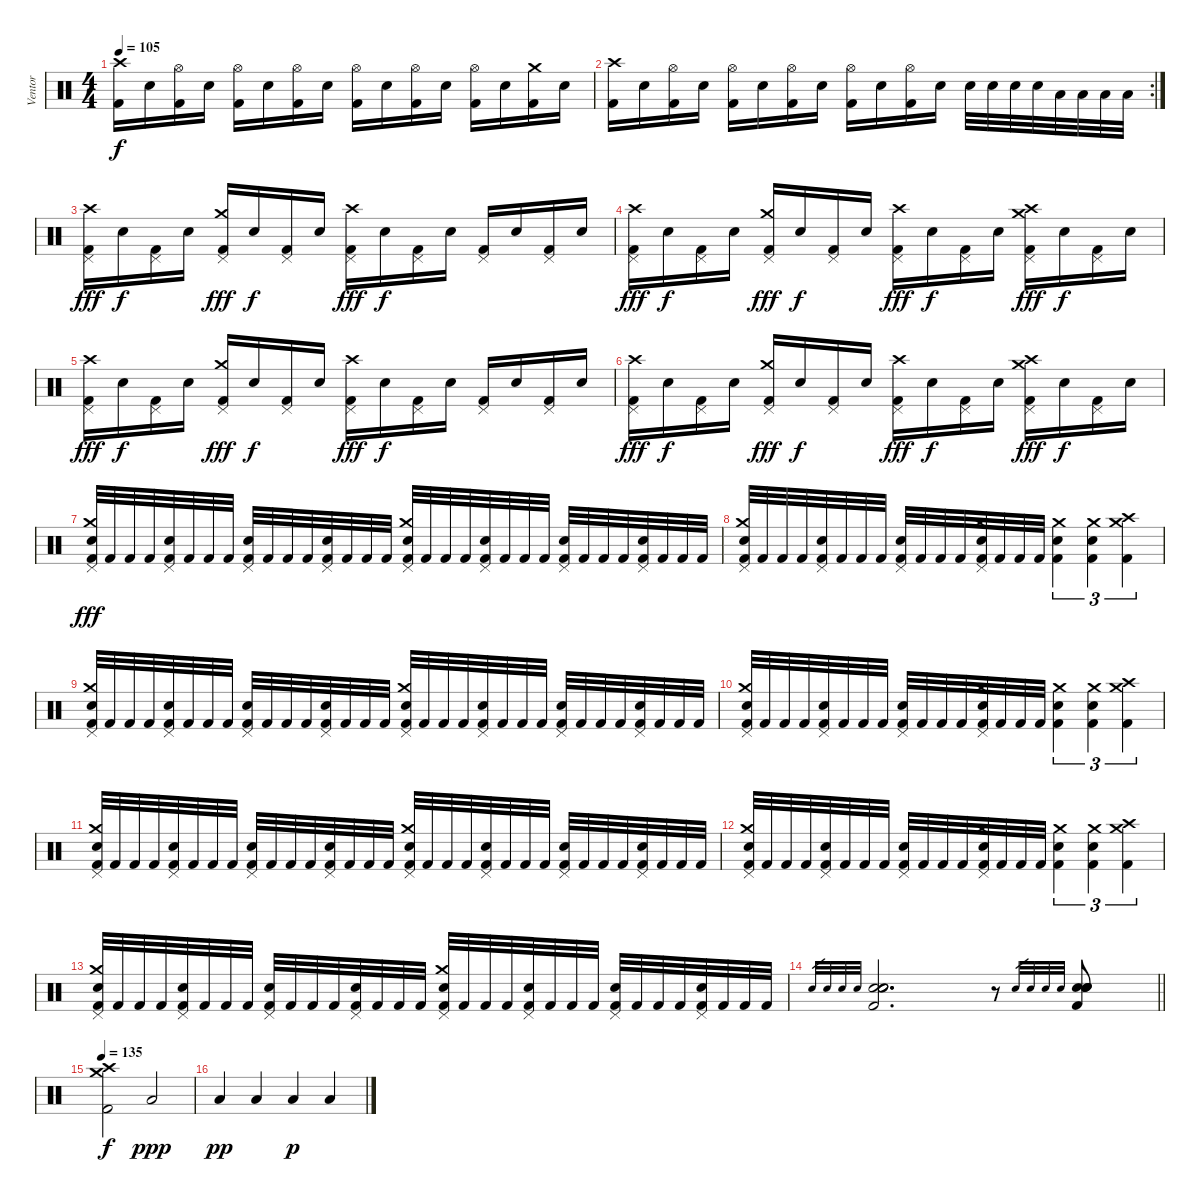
\track ("Ventor" "Ventor") {instrument percussion}
\staff {score}
\articulation defaults
\ts (4 4)
\tempo 105
\clef neutral
\ks c
("Crash high (hit)" "Kick (hit) 2").16{dy f} "Electric Snare (hit)".16 ("Hi-Hat (open)" "Kick (hit) 2").16 "Electric Snare (hit)".16 ("Hi-Hat (open)" "Kick (hit) 2").16 "Electric Snare (hit)".16 ("Hi-Hat (open)" "Kick (hit) 2").16 "Electric Snare (hit)".16 ("Hi-Hat (open)" "Kick (hit) 2").16 "Electric Snare (hit)".16 ("Hi-Hat (open)" "Kick (hit) 2").16 "Electric Snare (hit)".16 ("Hi-Hat (open)" "Kick (hit) 2").16 "Electric Snare (hit)".16 ("Crash medium (hit)" "Kick (hit) 2").16 "Electric Snare (hit)".16 |
\rc 2
("Crash high (hit)" "Kick (hit) 2").16 "Electric Snare (hit)".16 ("Hi-Hat (open)" "Kick (hit) 2").16 "Electric Snare (hit)".16 ("Hi-Hat (open)" "Kick (hit) 2").16 "Electric Snare (hit)".16 ("Hi-Hat (open)" "Kick (hit) 2").16 "Electric Snare (hit)".16 ("Hi-Hat (open)" "Kick (hit) 2").16 "Electric Snare (hit)".16 ("Hi-Hat (open)" "Kick (hit) 2").16 "Electric Snare (hit)".16 "Electric Snare (hit)".32 "Electric Snare (hit)".32 "Electric Snare (hit)".32 "Electric Snare (hit)".32 "Low Tom (hit)".32 "Low Tom (hit)".32 "Low Tom (hit)".32 "Low Tom (hit)".32 |
("Crash high (hit)" "Pedal Hi-Hat (hit)" "Kick (hit) 2").16{dy fff} "Electric Snare (hit)".16{dy f} ("Pedal Hi-Hat (hit)" "Kick (hit) 2").16 "Electric Snare (hit)".16 ("Crash medium (hit)" "Pedal Hi-Hat (hit)" "Kick (hit) 2").16{dy fff} "Electric Snare (hit)".16{dy f} ("Pedal Hi-Hat (hit)" "Kick (hit) 2").16 "Electric Snare (hit)".16 ("Crash high (hit)" "Pedal Hi-Hat (hit)" "Kick (hit) 2").16{dy fff} "Electric Snare (hit)".16{dy f} ("Pedal Hi-Hat (hit)" "Kick (hit) 2").16 "Electric Snare (hit)".16 ("Pedal Hi-Hat (hit)" "Kick (hit) 2").16 "Electric Snare (hit)".16 ("Pedal Hi-Hat (hit)" "Kick (hit) 2").16 "Electric Snare (hit)".16 |
("Crash high (hit)" "Pedal Hi-Hat (hit)" "Kick (hit) 2").16{dy fff} "Electric Snare (hit)".16{dy f} ("Pedal Hi-Hat (hit)" "Kick (hit) 2").16 "Electric Snare (hit)".16 ("Crash medium (hit)" "Pedal Hi-Hat (hit)" "Kick (hit) 2").16{dy fff} "Electric Snare (hit)".16{dy f} ("Pedal Hi-Hat (hit)" "Kick (hit) 2").16 "Electric Snare (hit)".16 ("Crash high (hit)" "Pedal Hi-Hat (hit)" "Kick (hit) 2").16{dy fff} "Electric Snare (hit)".16{dy f} ("Pedal Hi-Hat (hit)" "Kick (hit) 2").16 "Electric Snare (hit)".16 ("Crash medium (hit)" "Crash high (hit)" "Pedal Hi-Hat (hit)" "Kick (hit) 2").16{dy fff} "Electric Snare (hit)".16{dy f} ("Pedal Hi-Hat (hit)" "Kick (hit) 2").16 "Electric Snare (hit)".16 |
("Crash high (hit)" "Pedal Hi-Hat (hit)" "Kick (hit) 2").16{dy fff} "Electric Snare (hit)".16{dy f} ("Pedal Hi-Hat (hit)" "Kick (hit) 2").16 "Electric Snare (hit)".16 ("Crash medium (hit)" "Pedal Hi-Hat (hit)" "Kick (hit) 2").16{dy fff} "Electric Snare (hit)".16{dy f} ("Pedal Hi-Hat (hit)" "Kick (hit) 2").16 "Electric Snare (hit)".16 ("Crash high (hit)" "Pedal Hi-Hat (hit)" "Kick (hit) 2").16{dy fff} "Electric Snare (hit)".16{dy f} ("Pedal Hi-Hat (hit)" "Kick (hit) 2").16 "Electric Snare (hit)".16 ("Pedal Hi-Hat (hit)" "Kick (hit) 2").16 "Electric Snare (hit)".16 ("Pedal Hi-Hat (hit)" "Kick (hit) 2").16 "Electric Snare (hit)".16 |
("Crash high (hit)" "Pedal Hi-Hat (hit)" "Kick (hit) 2").16{dy fff} "Electric Snare (hit)".16{dy f} ("Pedal Hi-Hat (hit)" "Kick (hit) 2").16 "Electric Snare (hit)".16 ("Crash medium (hit)" "Pedal Hi-Hat (hit)" "Kick (hit) 2").16{dy fff} "Electric Snare (hit)".16{dy f} ("Pedal Hi-Hat (hit)" "Kick (hit) 2").16 "Electric Snare (hit)".16 ("Crash high (hit)" "Pedal Hi-Hat (hit)" "Kick (hit) 2").16{dy fff} "Electric Snare (hit)".16{dy f} ("Pedal Hi-Hat (hit)" "Kick (hit) 2").16 "Electric Snare (hit)".16 ("Crash medium (hit)" "Crash high (hit)" "Pedal Hi-Hat (hit)" "Kick (hit) 2").16{dy fff} "Electric Snare (hit)".16{dy f} ("Pedal Hi-Hat (hit)" "Kick (hit) 2").16 "Electric Snare (hit)".16 |
("Crash medium (hit)" "Pedal Hi-Hat (hit)" "Electric Snare (hit)" "Kick (hit) 2").32{dy fff} "Kick (hit) 2".32 "Kick (hit) 2".32 "Kick (hit) 2".32 ("Pedal Hi-Hat (hit)" "Electric Snare (hit)" "Kick (hit) 2").32 "Kick (hit) 2".32 "Kick (hit) 2".32 "Kick (hit) 2".32 ("Pedal Hi-Hat (hit)" "Electric Snare (hit)" "Kick (hit) 2").32 "Kick (hit) 2".32 "Kick (hit) 2".32 "Kick (hit) 2".32 ("Pedal Hi-Hat (hit)" "Electric Snare (hit)" "Kick (hit) 2").32 "Kick (hit) 2".32 "Kick (hit) 2".32 "Kick (hit) 2".32 ("Crash medium (hit)" "Pedal Hi-Hat (hit)" "Electric Snare (hit)" "Kick (hit) 2").32 "Kick (hit) 2".32 "Kick (hit) 2".32 "Kick (hit) 2".32 ("Pedal Hi-Hat (hit)" "Electric Snare (hit)" "Kick (hit) 2").32 "Kick (hit) 2".32 "Kick (hit) 2".32 "Kick (hit) 2".32 ("Pedal Hi-Hat (hit)" "Electric Snare (hit)" "Kick (hit) 2").32 "Kick (hit) 2".32 "Kick (hit) 2".32 "Kick (hit) 2".32 ("Pedal Hi-Hat (hit)" "Electric Snare (hit)" "Kick (hit) 2").32 "Kick (hit) 2".32 "Kick (hit) 2".32 "Kick (hit) 2".32 |
("Crash medium (hit)" "Pedal Hi-Hat (hit)" "Electric Snare (hit)" "Kick (hit) 2").32 "Kick (hit) 2".32 "Kick (hit) 2".32 "Kick (hit) 2".32 ("Pedal Hi-Hat (hit)" "Electric Snare (hit)" "Kick (hit) 2").32 "Kick (hit) 2".32 "Kick (hit) 2".32 "Kick (hit) 2".32 ("Pedal Hi-Hat (hit)" "Electric Snare (hit)" "Kick (hit) 2").32 "Kick (hit) 2".32 "Kick (hit) 2".32 "Kick (hit) 2".32 ("Crash medium (hit)" "Pedal Hi-Hat (hit)" "Electric Snare (hit)" "Kick (hit) 2").32 "Kick (hit) 2".32 "Kick (hit) 2".32 "Kick (hit) 2".32 ("Crash medium (hit)" "Electric Snare (hit)" "Kick (hit) 2").4{tu (3 2)} ("Crash medium (hit)" "Electric Snare (hit)" "Kick (hit) 2").4{tu (3 2)} ("Crash high (hit)" "Crash medium (hit)" "Kick (hit) 2").4{tu (3 2)} |
("Crash medium (hit)" "Pedal Hi-Hat (hit)" "Electric Snare (hit)" "Kick (hit) 2").32 "Kick (hit) 2".32 "Kick (hit) 2".32 "Kick (hit) 2".32 ("Pedal Hi-Hat (hit)" "Electric Snare (hit)" "Kick (hit) 2").32 "Kick (hit) 2".32 "Kick (hit) 2".32 "Kick (hit) 2".32 ("Pedal Hi-Hat (hit)" "Electric Snare (hit)" "Kick (hit) 2").32 "Kick (hit) 2".32 "Kick (hit) 2".32 "Kick (hit) 2".32 ("Pedal Hi-Hat (hit)" "Electric Snare (hit)" "Kick (hit) 2").32 "Kick (hit) 2".32 "Kick (hit) 2".32 "Kick (hit) 2".32 ("Crash medium (hit)" "Pedal Hi-Hat (hit)" "Electric Snare (hit)" "Kick (hit) 2").32 "Kick (hit) 2".32 "Kick (hit) 2".32 "Kick (hit) 2".32 ("Pedal Hi-Hat (hit)" "Electric Snare (hit)" "Kick (hit) 2").32 "Kick (hit) 2".32 "Kick (hit) 2".32 "Kick (hit) 2".32 ("Pedal Hi-Hat (hit)" "Electric Snare (hit)" "Kick (hit) 2").32 "Kick (hit) 2".32 "Kick (hit) 2".32 "Kick (hit) 2".32 ("Pedal Hi-Hat (hit)" "Electric Snare (hit)" "Kick (hit) 2").32 "Kick (hit) 2".32 "Kick (hit) 2".32 "Kick (hit) 2".32 |
("Crash medium (hit)" "Pedal Hi-Hat (hit)" "Electric Snare (hit)" "Kick (hit) 2").32 "Kick (hit) 2".32 "Kick (hit) 2".32 "Kick (hit) 2".32 ("Pedal Hi-Hat (hit)" "Electric Snare (hit)" "Kick (hit) 2").32 "Kick (hit) 2".32 "Kick (hit) 2".32 "Kick (hit) 2".32 ("Pedal Hi-Hat (hit)" "Electric Snare (hit)" "Kick (hit) 2").32 "Kick (hit) 2".32 "Kick (hit) 2".32 "Kick (hit) 2".32 ("Crash medium (hit)" "Pedal Hi-Hat (hit)" "Electric Snare (hit)" "Kick (hit) 2").32 "Kick (hit) 2".32 "Kick (hit) 2".32 "Kick (hit) 2".32 ("Crash medium (hit)" "Electric Snare (hit)" "Kick (hit) 2").4{tu (3 2)} ("Crash medium (hit)" "Electric Snare (hit)" "Kick (hit) 2").4{tu (3 2)} ("Crash high (hit)" "Crash medium (hit)" "Kick (hit) 2").4{tu (3 2)} |
("Crash medium (hit)" "Pedal Hi-Hat (hit)" "Electric Snare (hit)" "Kick (hit) 2").32 "Kick (hit) 2".32 "Kick (hit) 2".32 "Kick (hit) 2".32 ("Pedal Hi-Hat (hit)" "Electric Snare (hit)" "Kick (hit) 2").32 "Kick (hit) 2".32 "Kick (hit) 2".32 "Kick (hit) 2".32 ("Pedal Hi-Hat (hit)" "Electric Snare (hit)" "Kick (hit) 2").32 "Kick (hit) 2".32 "Kick (hit) 2".32 "Kick (hit) 2".32 ("Pedal Hi-Hat (hit)" "Electric Snare (hit)" "Kick (hit) 2").32 "Kick (hit) 2".32 "Kick (hit) 2".32 "Kick (hit) 2".32 ("Crash medium (hit)" "Pedal Hi-Hat (hit)" "Electric Snare (hit)" "Kick (hit) 2").32 "Kick (hit) 2".32 "Kick (hit) 2".32 "Kick (hit) 2".32 ("Pedal Hi-Hat (hit)" "Electric Snare (hit)" "Kick (hit) 2").32 "Kick (hit) 2".32 "Kick (hit) 2".32 "Kick (hit) 2".32 ("Pedal Hi-Hat (hit)" "Electric Snare (hit)" "Kick (hit) 2").32 "Kick (hit) 2".32 "Kick (hit) 2".32 "Kick (hit) 2".32 ("Pedal Hi-Hat (hit)" "Electric Snare (hit)" "Kick (hit) 2").32 "Kick (hit) 2".32 "Kick (hit) 2".32 "Kick (hit) 2".32 |
("Crash medium (hit)" "Pedal Hi-Hat (hit)" "Electric Snare (hit)" "Kick (hit) 2").32 "Kick (hit) 2".32 "Kick (hit) 2".32 "Kick (hit) 2".32 ("Pedal Hi-Hat (hit)" "Electric Snare (hit)" "Kick (hit) 2").32 "Kick (hit) 2".32 "Kick (hit) 2".32 "Kick (hit) 2".32 ("Pedal Hi-Hat (hit)" "Electric Snare (hit)" "Kick (hit) 2").32 "Kick (hit) 2".32 "Kick (hit) 2".32 "Kick (hit) 2".32 ("Crash medium (hit)" "Pedal Hi-Hat (hit)" "Electric Snare (hit)" "Kick (hit) 2").32 "Kick (hit) 2".32 "Kick (hit) 2".32 "Kick (hit) 2".32 ("Crash medium (hit)" "Electric Snare (hit)" "Kick (hit) 2").4{tu (3 2)} ("Crash medium (hit)" "Electric Snare (hit)" "Kick (hit) 2").4{tu (3 2)} ("Crash high (hit)" "Crash medium (hit)" "Kick (hit) 2").4{tu (3 2)} |
("Crash medium (hit)" "Pedal Hi-Hat (hit)" "Electric Snare (hit)" "Kick (hit) 2").32 "Kick (hit) 2".32 "Kick (hit) 2".32 "Kick (hit) 2".32 ("Pedal Hi-Hat (hit)" "Electric Snare (hit)" "Kick (hit) 2").32 "Kick (hit) 2".32 "Kick (hit) 2".32 "Kick (hit) 2".32 ("Pedal Hi-Hat (hit)" "Electric Snare (hit)" "Kick (hit) 2").32 "Kick (hit) 2".32 "Kick (hit) 2".32 "Kick (hit) 2".32 ("Pedal Hi-Hat (hit)" "Electric Snare (hit)" "Kick (hit) 2").32 "Kick (hit) 2".32 "Kick (hit) 2".32 "Kick (hit) 2".32 ("Crash medium (hit)" "Pedal Hi-Hat (hit)" "Electric Snare (hit)" "Kick (hit) 2").32 "Kick (hit) 2".32 "Kick (hit) 2".32 "Kick (hit) 2".32 ("Pedal Hi-Hat (hit)" "Electric Snare (hit)" "Kick (hit) 2").32 "Kick (hit) 2".32 "Kick (hit) 2".32 "Kick (hit) 2".32 ("Pedal Hi-Hat (hit)" "Electric Snare (hit)" "Kick (hit) 2").32 "Kick (hit) 2".32 "Kick (hit) 2".32 "Kick (hit) 2".32 ("Pedal Hi-Hat (hit)" "Electric Snare (hit)" "Kick (hit) 2").32 "Kick (hit) 2".32 "Kick (hit) 2".32 "Kick (hit) 2".32 |
\barLineRight lightlight "Electric Snare (hit)".32{gr} "Electric Snare (hit)".32{gr} "Electric Snare (hit)".32{gr} "Electric Snare (hit)".32{gr}
("Electric Snare (hit)" "Electric Snare (hit)" "Electric Snare (hit)" "Electric Snare (hit)" "Kick (hit) 2").2{d} r.8 "Electric Snare (hit)".32{gr} "Electric Snare (hit)".32{gr} "Electric Snare (hit)".32{gr} "Electric Snare (hit)".32{gr} ("Electric Snare (hit)" "Electric Snare (hit)" "Electric Snare (hit)" "Electric Snare (hit)" "Kick (hit) 2").8 |
\tempo 135
("Crash high (hit)" "Crash medium (hit)" "Kick (hit) 2").2{dy f} "Low Tom (hit)".2{dy ppp} |
"Low Tom (hit)".4{dy pp} "Low Tom (hit)".4 "Low Tom (hit)".4{dy p} "Low Tom (hit)".4
